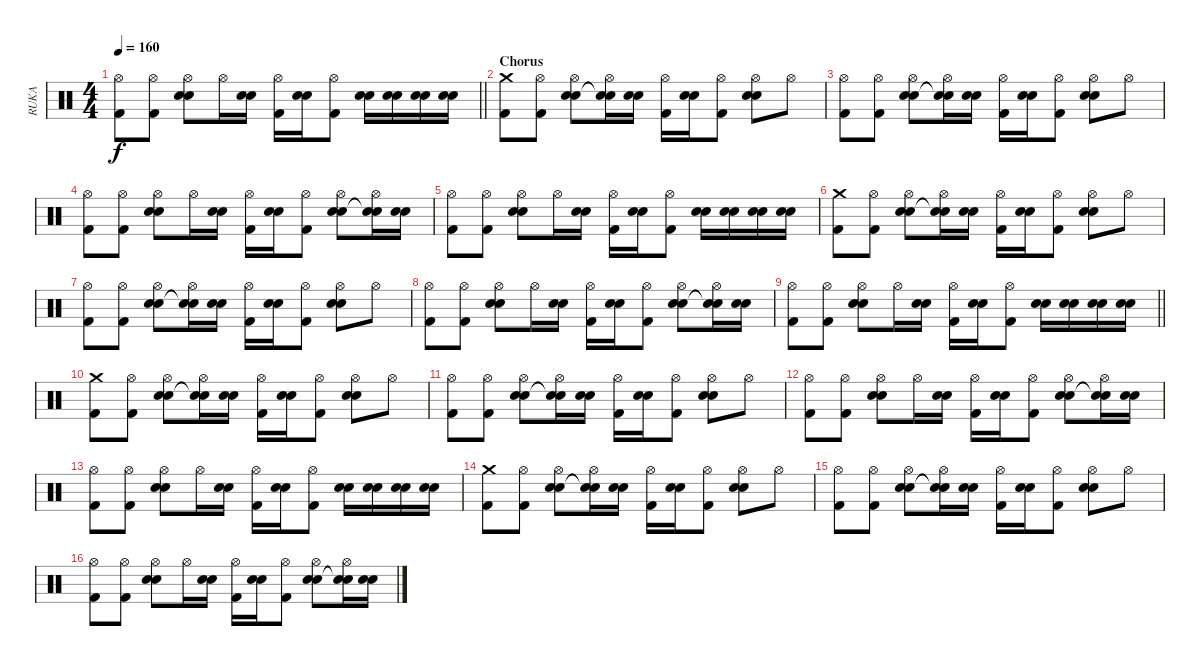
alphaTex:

\track ("RUKA" "RUKA") {instrument percussion}
\staff {score}
\articulation defaults
\ts (4 4)
\tempo 160
\clef neutral
\barLineRight lightlight
\ks c
("Hi-Hat (open)" "Kick (hit) 2").8{dy f} ("Hi-Hat (open)" "Kick (hit) 2").8 ("Hi-Hat (open)" "Snare (hit) 2" "Electric Snare (hit)").8 "Hi-Hat (open)".16 ("Snare (hit) 2" "Electric Snare (hit)").16 ("Hi-Hat (open)" "Kick (hit) 2").16 ("Snare (hit) 2" "Electric Snare (hit)").16 ("Hi-Hat (open)" "Kick (hit) 2").8 ("Snare (hit) 2" "Electric Snare (hit)").16 ("Snare (hit) 2" "Electric Snare (hit)").16 ("Snare (hit) 2" "Electric Snare (hit)").16 ("Snare (hit) 2" "Electric Snare (hit)").16 |
\section ("" "Chorus")
("Crash medium (hit)" "Kick (hit) 2").8 ("Hi-Hat (open)" "Kick (hit) 2").8 ("Hi-Hat (open)" "Snare (hit) 2" "Electric Snare (hit)").8 ("Hi-Hat (open)" "Snare (hit)"{t} "Snare (hit)"{t}).16 ("Snare (hit) 2" "Electric Snare (hit)").16 ("Hi-Hat (open)" "Kick (hit) 2").16 ("Snare (hit) 2" "Electric Snare (hit)").16 ("Hi-Hat (open)" "Kick (hit) 2").8 ("Hi-Hat (open)" "Snare (hit) 2" "Electric Snare (hit)").8 "Hi-Hat (open)".8 |
("Hi-Hat (open)" "Kick (hit) 2").8 ("Hi-Hat (open)" "Kick (hit) 2").8 ("Hi-Hat (open)" "Snare (hit) 2" "Electric Snare (hit)").8 ("Hi-Hat (open)" "Snare (hit)"{t} "Snare (hit)"{t}).16 ("Snare (hit) 2" "Electric Snare (hit)").16 ("Hi-Hat (open)" "Kick (hit) 2").16 ("Snare (hit) 2" "Electric Snare (hit)").16 ("Hi-Hat (open)" "Kick (hit) 2").8 ("Hi-Hat (open)" "Snare (hit) 2" "Electric Snare (hit)").8 "Hi-Hat (open)".8 |
("Hi-Hat (open)" "Kick (hit) 2").8 ("Hi-Hat (open)" "Kick (hit) 2").8 ("Hi-Hat (open)" "Snare (hit) 2" "Electric Snare (hit)").8 "Hi-Hat (open)".16 ("Snare (hit) 2" "Electric Snare (hit)").16 ("Hi-Hat (open)" "Kick (hit) 2").16 ("Snare (hit) 2" "Electric Snare (hit)").16 ("Hi-Hat (open)" "Kick (hit) 2").8 ("Hi-Hat (open)" "Snare (hit) 2" "Electric Snare (hit)").8 ("Hi-Hat (open)" "Snare (hit)"{t} "Snare (hit)"{t}).16 ("Snare (hit) 2" "Electric Snare (hit)").16 |
("Hi-Hat (open)" "Kick (hit) 2").8 ("Hi-Hat (open)" "Kick (hit) 2").8 ("Hi-Hat (open)" "Snare (hit) 2" "Electric Snare (hit)").8 "Hi-Hat (open)".16 ("Snare (hit) 2" "Electric Snare (hit)").16 ("Hi-Hat (open)" "Kick (hit) 2").16 ("Snare (hit) 2" "Electric Snare (hit)").16 ("Hi-Hat (open)" "Kick (hit) 2").8 ("Snare (hit) 2" "Electric Snare (hit)").16 ("Snare (hit) 2" "Electric Snare (hit)").16 ("Snare (hit) 2" "Electric Snare (hit)").16 ("Snare (hit) 2" "Electric Snare (hit)").16 |
("Crash medium (hit)" "Kick (hit) 2").8 ("Hi-Hat (open)" "Kick (hit) 2").8 ("Hi-Hat (open)" "Snare (hit) 2" "Electric Snare (hit)").8 ("Hi-Hat (open)" "Snare (hit)"{t} "Snare (hit)"{t}).16 ("Snare (hit) 2" "Electric Snare (hit)").16 ("Hi-Hat (open)" "Kick (hit) 2").16 ("Snare (hit) 2" "Electric Snare (hit)").16 ("Hi-Hat (open)" "Kick (hit) 2").8 ("Hi-Hat (open)" "Snare (hit) 2" "Electric Snare (hit)").8 "Hi-Hat (open)".8 |
("Hi-Hat (open)" "Kick (hit) 2").8 ("Hi-Hat (open)" "Kick (hit) 2").8 ("Hi-Hat (open)" "Snare (hit) 2" "Electric Snare (hit)").8 ("Hi-Hat (open)" "Snare (hit)"{t} "Snare (hit)"{t}).16 ("Snare (hit) 2" "Electric Snare (hit)").16 ("Hi-Hat (open)" "Kick (hit) 2").16 ("Snare (hit) 2" "Electric Snare (hit)").16 ("Hi-Hat (open)" "Kick (hit) 2").8 ("Hi-Hat (open)" "Snare (hit) 2" "Electric Snare (hit)").8 "Hi-Hat (open)".8 |
("Hi-Hat (open)" "Kick (hit) 2").8 ("Hi-Hat (open)" "Kick (hit) 2").8 ("Hi-Hat (open)" "Snare (hit) 2" "Electric Snare (hit)").8 "Hi-Hat (open)".16 ("Snare (hit) 2" "Electric Snare (hit)").16 ("Hi-Hat (open)" "Kick (hit) 2").16 ("Snare (hit) 2" "Electric Snare (hit)").16 ("Hi-Hat (open)" "Kick (hit) 2").8 ("Hi-Hat (open)" "Snare (hit) 2" "Electric Snare (hit)").8 ("Hi-Hat (open)" "Snare (hit)"{t} "Snare (hit)"{t}).16 ("Snare (hit) 2" "Electric Snare (hit)").16 |
\barLineRight lightlight
("Hi-Hat (open)" "Kick (hit) 2").8 ("Hi-Hat (open)" "Kick (hit) 2").8 ("Hi-Hat (open)" "Snare (hit) 2" "Electric Snare (hit)").8 "Hi-Hat (open)".16 ("Snare (hit) 2" "Electric Snare (hit)").16 ("Hi-Hat (open)" "Kick (hit) 2").16 ("Snare (hit) 2" "Electric Snare (hit)").16 ("Hi-Hat (open)" "Kick (hit) 2").8 ("Snare (hit) 2" "Electric Snare (hit)").16 ("Snare (hit) 2" "Electric Snare (hit)").16 ("Snare (hit) 2" "Electric Snare (hit)").16 ("Snare (hit) 2" "Electric Snare (hit)").16 |
("Crash medium (hit)" "Kick (hit) 2").8 ("Hi-Hat (open)" "Kick (hit) 2").8 ("Hi-Hat (open)" "Snare (hit) 2" "Electric Snare (hit)").8 ("Hi-Hat (open)" "Snare (hit)"{t} "Snare (hit)"{t}).16 ("Snare (hit) 2" "Electric Snare (hit)").16 ("Hi-Hat (open)" "Kick (hit) 2").16 ("Snare (hit) 2" "Electric Snare (hit)").16 ("Hi-Hat (open)" "Kick (hit) 2").8 ("Hi-Hat (open)" "Snare (hit) 2" "Electric Snare (hit)").8 "Hi-Hat (open)".8 |
("Hi-Hat (open)" "Kick (hit) 2").8 ("Hi-Hat (open)" "Kick (hit) 2").8 ("Hi-Hat (open)" "Snare (hit) 2" "Electric Snare (hit)").8 ("Hi-Hat (open)" "Snare (hit)"{t} "Snare (hit)"{t}).16 ("Snare (hit) 2" "Electric Snare (hit)").16 ("Hi-Hat (open)" "Kick (hit) 2").16 ("Snare (hit) 2" "Electric Snare (hit)").16 ("Hi-Hat (open)" "Kick (hit) 2").8 ("Hi-Hat (open)" "Snare (hit) 2" "Electric Snare (hit)").8 "Hi-Hat (open)".8 |
("Hi-Hat (open)" "Kick (hit) 2").8 ("Hi-Hat (open)" "Kick (hit) 2").8 ("Hi-Hat (open)" "Snare (hit) 2" "Electric Snare (hit)").8 "Hi-Hat (open)".16 ("Snare (hit) 2" "Electric Snare (hit)").16 ("Hi-Hat (open)" "Kick (hit) 2").16 ("Snare (hit) 2" "Electric Snare (hit)").16 ("Hi-Hat (open)" "Kick (hit) 2").8 ("Hi-Hat (open)" "Snare (hit) 2" "Electric Snare (hit)").8 ("Hi-Hat (open)" "Snare (hit)"{t} "Snare (hit)"{t}).16 ("Snare (hit) 2" "Electric Snare (hit)").16 |
("Hi-Hat (open)" "Kick (hit) 2").8 ("Hi-Hat (open)" "Kick (hit) 2").8 ("Hi-Hat (open)" "Snare (hit) 2" "Electric Snare (hit)").8 "Hi-Hat (open)".16 ("Snare (hit) 2" "Electric Snare (hit)").16 ("Hi-Hat (open)" "Kick (hit) 2").16 ("Snare (hit) 2" "Electric Snare (hit)").16 ("Hi-Hat (open)" "Kick (hit) 2").8 ("Snare (hit) 2" "Electric Snare (hit)").16 ("Snare (hit) 2" "Electric Snare (hit)").16 ("Snare (hit) 2" "Electric Snare (hit)").16 ("Snare (hit) 2" "Electric Snare (hit)").16 |
("Crash medium (hit)" "Kick (hit) 2").8 ("Hi-Hat (open)" "Kick (hit) 2").8 ("Hi-Hat (open)" "Snare (hit) 2" "Electric Snare (hit)").8 ("Hi-Hat (open)" "Snare (hit)"{t} "Snare (hit)"{t}).16 ("Snare (hit) 2" "Electric Snare (hit)").16 ("Hi-Hat (open)" "Kick (hit) 2").16 ("Snare (hit) 2" "Electric Snare (hit)").16 ("Hi-Hat (open)" "Kick (hit) 2").8 ("Hi-Hat (open)" "Snare (hit) 2" "Electric Snare (hit)").8 "Hi-Hat (open)".8 |
("Hi-Hat (open)" "Kick (hit) 2").8 ("Hi-Hat (open)" "Kick (hit) 2").8 ("Hi-Hat (open)" "Snare (hit) 2" "Electric Snare (hit)").8 ("Hi-Hat (open)" "Snare (hit)"{t} "Snare (hit)"{t}).16 ("Snare (hit) 2" "Electric Snare (hit)").16 ("Hi-Hat (open)" "Kick (hit) 2").16 ("Snare (hit) 2" "Electric Snare (hit)").16 ("Hi-Hat (open)" "Kick (hit) 2").8 ("Hi-Hat (open)" "Snare (hit) 2" "Electric Snare (hit)").8 "Hi-Hat (open)".8 |
("Hi-Hat (open)" "Kick (hit) 2").8 ("Hi-Hat (open)" "Kick (hit) 2").8 ("Hi-Hat (open)" "Snare (hit) 2" "Electric Snare (hit)").8 "Hi-Hat (open)".16 ("Snare (hit) 2" "Electric Snare (hit)").16 ("Hi-Hat (open)" "Kick (hit) 2").16 ("Snare (hit) 2" "Electric Snare (hit)").16 ("Hi-Hat (open)" "Kick (hit) 2").8 ("Hi-Hat (open)" "Snare (hit) 2" "Electric Snare (hit)").8 ("Hi-Hat (open)" "Snare (hit)"{t} "Snare (hit)"{t}).16 ("Snare (hit) 2" "Electric Snare (hit)").16
